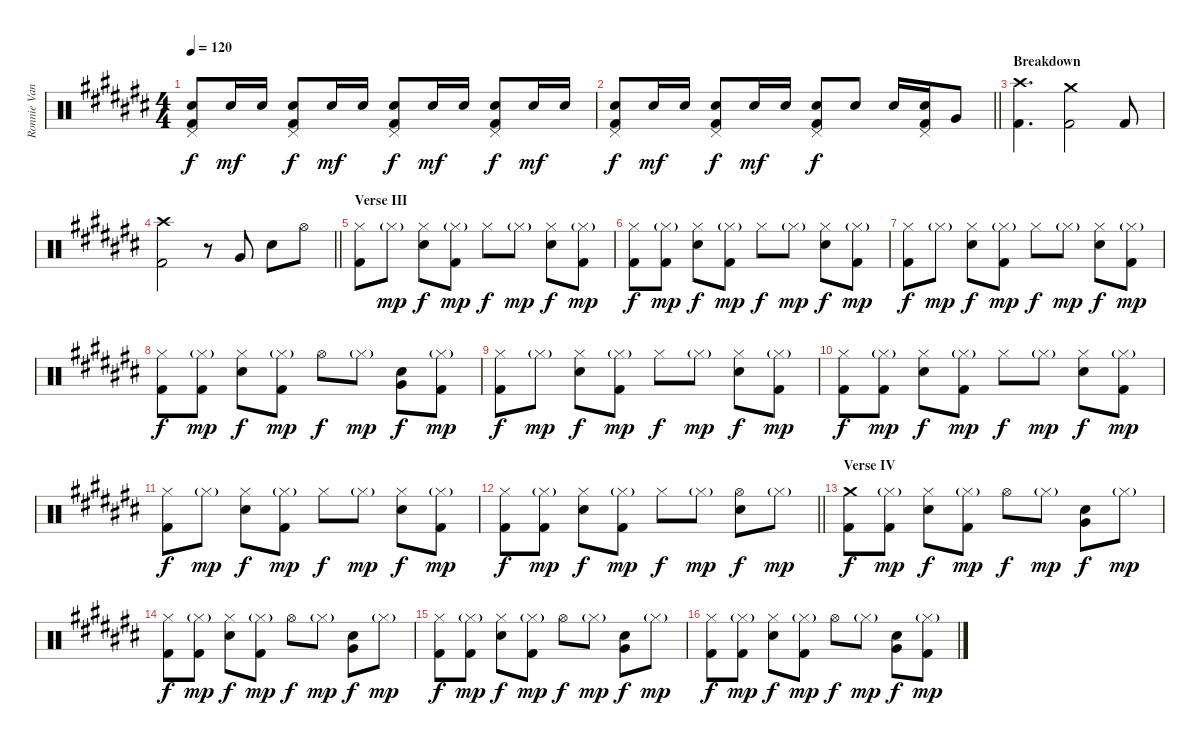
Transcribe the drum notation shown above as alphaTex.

\track ("Ronnie Vannucci Jr. drums" "Ronnie Van") {instrument percussion}
\staff {score}
\articulation defaults
\ts (4 4)
\tempo 120
\clef neutral
\ks c#
("Pedal Hi-Hat (hit)" "Electric Snare (hit)" "Kick (hit) 2").8{dy f} "Electric Snare (hit)".16{dy mf} "Electric Snare (hit)".16 ("Pedal Hi-Hat (hit)" "Electric Snare (hit)" "Kick (hit) 2").8{dy f} "Electric Snare (hit)".16{dy mf} "Electric Snare (hit)".16 ("Pedal Hi-Hat (hit)" "Electric Snare (hit)" "Kick (hit) 2").8{dy f} "Electric Snare (hit)".16{dy mf} "Electric Snare (hit)".16 ("Pedal Hi-Hat (hit)" "Electric Snare (hit)" "Kick (hit) 2").8{dy f} "Electric Snare (hit)".16{dy mf} "Electric Snare (hit)".16 |
\barLineRight lightlight
("Pedal Hi-Hat (hit)" "Electric Snare (hit)" "Kick (hit) 2").8{dy f} "Electric Snare (hit)".16{dy mf} "Electric Snare (hit)".16 ("Pedal Hi-Hat (hit)" "Electric Snare (hit)" "Kick (hit) 2").8{dy f} "Electric Snare (hit)".16{dy mf} "Electric Snare (hit)".16 ("Pedal Hi-Hat (hit)" "Electric Snare (hit)" "Kick (hit) 2").8{dy f} "Electric Snare (hit)".8 "Electric Snare (hit)".16 ("Pedal Hi-Hat (hit)" "Electric Snare (hit)" "Kick (hit) 2").16 "Very Low Tom (hit)".8 |
\section ("" "Breakdown")
("Crash high (hit)" "Kick (hit) 2").4{d} ("Crash medium (hit)" "Kick (hit) 2").2 "Kick (hit) 2".8 |
\barLineRight lightlight
("Crash high (hit)" "Kick (hit) 2").2 r.8 "Very Low Tom (hit)".8 "Electric Snare (hit)".8 "Hi-Hat (open)".8 |
\section ("" "Verse III")
("Hi-Hat (closed)" "Kick (hit) 2").8 "Hi-Hat (closed)"{g}.8{dy mp} ("Hi-Hat (closed)" "Electric Snare (hit)").8{dy f} ("Hi-Hat (closed)"{g} "Kick (hit) 2").8{dy mp} "Hi-Hat (closed)".8{dy f} "Hi-Hat (closed)"{g}.8{dy mp} ("Hi-Hat (closed)" "Electric Snare (hit)").8{dy f} ("Hi-Hat (closed)"{g} "Kick (hit) 2").8{dy mp} |
("Hi-Hat (closed)" "Kick (hit) 2").8{dy f} ("Hi-Hat (closed)"{g} "Kick (hit) 2").8{dy mp} ("Hi-Hat (closed)" "Electric Snare (hit)").8{dy f} ("Hi-Hat (closed)"{g} "Kick (hit) 2").8{dy mp} "Hi-Hat (closed)".8{dy f} "Hi-Hat (closed)"{g}.8{dy mp} ("Hi-Hat (closed)" "Electric Snare (hit)").8{dy f} ("Hi-Hat (closed)"{g} "Kick (hit) 2").8{dy mp} |
("Hi-Hat (closed)" "Kick (hit) 2").8{dy f} "Hi-Hat (closed)"{g}.8{dy mp} ("Hi-Hat (closed)" "Electric Snare (hit)").8{dy f} ("Hi-Hat (closed)"{g} "Kick (hit) 2").8{dy mp} "Hi-Hat (closed)".8{dy f} "Hi-Hat (closed)"{g}.8{dy mp} ("Hi-Hat (closed)" "Electric Snare (hit)").8{dy f} ("Hi-Hat (closed)"{g} "Kick (hit) 2").8{dy mp} |
("Hi-Hat (closed)" "Kick (hit) 2").8{dy f} ("Hi-Hat (closed)"{g} "Kick (hit) 2").8{dy mp} ("Hi-Hat (closed)" "Electric Snare (hit)").8{dy f} ("Hi-Hat (closed)"{g} "Kick (hit) 2").8{dy mp} "Hi-Hat (open)".8{dy f} "Hi-Hat (closed)"{g}.8{dy mp} ("Very Low Tom (hit)" "Electric Snare (hit)").8{dy f} ("Hi-Hat (closed)"{g} "Kick (hit) 2").8{dy mp} |
("Hi-Hat (closed)" "Kick (hit) 2").8{dy f} "Hi-Hat (closed)"{g}.8{dy mp} ("Hi-Hat (closed)" "Electric Snare (hit)").8{dy f} ("Hi-Hat (closed)"{g} "Kick (hit) 2").8{dy mp} "Hi-Hat (closed)".8{dy f} "Hi-Hat (closed)"{g}.8{dy mp} ("Hi-Hat (closed)" "Electric Snare (hit)").8{dy f} ("Hi-Hat (closed)"{g} "Kick (hit) 2").8{dy mp} |
("Hi-Hat (closed)" "Kick (hit) 2").8{dy f} ("Hi-Hat (closed)"{g} "Kick (hit) 2").8{dy mp} ("Hi-Hat (closed)" "Electric Snare (hit)").8{dy f} ("Hi-Hat (closed)"{g} "Kick (hit) 2").8{dy mp} "Hi-Hat (closed)".8{dy f} "Hi-Hat (closed)"{g}.8{dy mp} ("Hi-Hat (closed)" "Electric Snare (hit)").8{dy f} ("Hi-Hat (closed)"{g} "Kick (hit) 2").8{dy mp} |
("Hi-Hat (closed)" "Kick (hit) 2").8{dy f} "Hi-Hat (closed)"{g}.8{dy mp} ("Hi-Hat (closed)" "Electric Snare (hit)").8{dy f} ("Hi-Hat (closed)"{g} "Kick (hit) 2").8{dy mp} "Hi-Hat (closed)".8{dy f} "Hi-Hat (closed)"{g}.8{dy mp} ("Hi-Hat (closed)" "Electric Snare (hit)").8{dy f} ("Hi-Hat (closed)"{g} "Kick (hit) 2").8{dy mp} |
\barLineRight lightlight
("Hi-Hat (closed)" "Kick (hit) 2").8{dy f} ("Hi-Hat (closed)"{g} "Kick (hit) 2").8{dy mp} ("Hi-Hat (closed)" "Electric Snare (hit)").8{dy f} ("Hi-Hat (closed)"{g} "Kick (hit) 2").8{dy mp} "Hi-Hat (closed)".8{dy f} "Hi-Hat (closed)"{g}.8{dy mp} ("Hi-Hat (open)" "Electric Snare (hit)").8{dy f} "Hi-Hat (closed)"{g}.8{dy mp} |
\section ("" "Verse IV")
("Crash medium (hit)" "Kick (hit) 2").8{dy f} ("Hi-Hat (closed)"{g} "Kick (hit) 2").8{dy mp} ("Hi-Hat (closed)" "Electric Snare (hit)").8{dy f} ("Hi-Hat (closed)"{g} "Kick (hit) 2").8{dy mp} "Hi-Hat (open)".8{dy f} "Hi-Hat (closed)"{g}.8{dy mp} ("Very Low Tom (hit)" "Electric Snare (hit)").8{dy f} "Hi-Hat (closed)"{g}.8{dy mp} |
("Hi-Hat (closed)" "Kick (hit) 2").8{dy f} ("Hi-Hat (closed)"{g} "Kick (hit) 2").8{dy mp} ("Hi-Hat (closed)" "Electric Snare (hit)").8{dy f} ("Hi-Hat (closed)"{g} "Kick (hit) 2").8{dy mp} "Hi-Hat (open)".8{dy f} "Hi-Hat (closed)"{g}.8{dy mp} ("Very Low Tom (hit)" "Electric Snare (hit)").8{dy f} "Hi-Hat (closed)"{g}.8{dy mp} |
("Hi-Hat (closed)" "Kick (hit) 2").8{dy f} ("Hi-Hat (closed)"{g} "Kick (hit) 2").8{dy mp} ("Hi-Hat (closed)" "Electric Snare (hit)").8{dy f} ("Hi-Hat (closed)"{g} "Kick (hit) 2").8{dy mp} "Hi-Hat (open)".8{dy f} "Hi-Hat (closed)"{g}.8{dy mp} ("Very Low Tom (hit)" "Electric Snare (hit)").8{dy f} "Hi-Hat (closed)"{g}.8{dy mp} |
("Hi-Hat (closed)" "Kick (hit) 2").8{dy f} ("Hi-Hat (closed)"{g} "Kick (hit) 2").8{dy mp} ("Hi-Hat (closed)" "Electric Snare (hit)").8{dy f} ("Hi-Hat (closed)"{g} "Kick (hit) 2").8{dy mp} "Hi-Hat (open)".8{dy f} "Hi-Hat (closed)"{g}.8{dy mp} ("Very Low Tom (hit)" "Electric Snare (hit)").8{dy f} ("Hi-Hat (closed)"{g} "Kick (hit) 2").8{dy mp}
